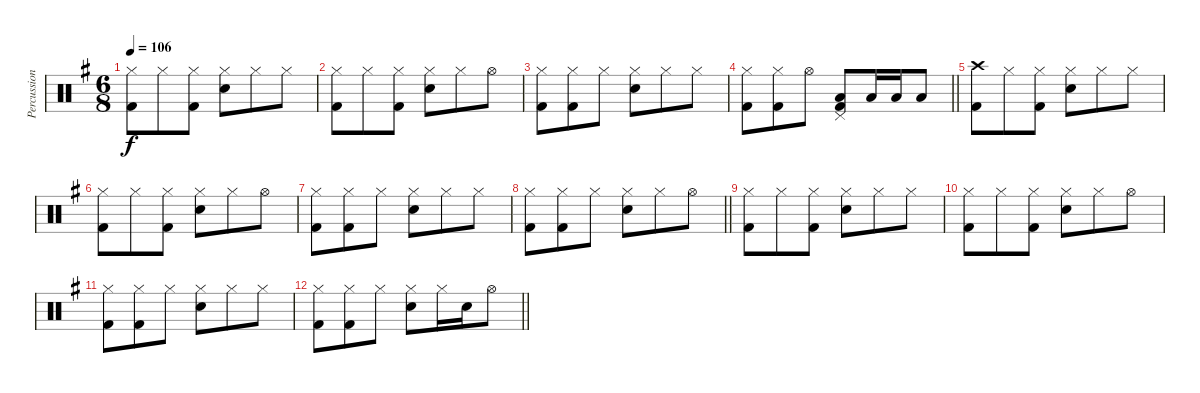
\track ("Percussion" "Percussion") {instrument percussion}
\staff {score}
\articulation defaults
\ts (6 8)
\tempo 106
\clef neutral
\ks g
("Hi-Hat (closed)" "Kick (hit) 2").8{dy f} "Hi-Hat (closed)".8 ("Hi-Hat (closed)" "Kick (hit) 2").8 ("Hi-Hat (closed)" "Snare (hit) 2").8 "Hi-Hat (closed)".8 "Hi-Hat (closed)".8 |
("Hi-Hat (closed)" "Kick (hit) 2").8 "Hi-Hat (closed)".8 ("Hi-Hat (closed)" "Kick (hit) 2").8 ("Hi-Hat (closed)" "Snare (hit) 2").8 "Hi-Hat (closed)".8 "Hi-Hat (open)".8 |
("Hi-Hat (closed)" "Kick (hit) 2").8 ("Hi-Hat (closed)" "Kick (hit) 2").8 "Hi-Hat (closed)".8 ("Hi-Hat (closed)" "Snare (hit) 2").8 "Hi-Hat (closed)".8 "Hi-Hat (closed)".8 |
\barLineRight lightlight
("Hi-Hat (closed)" "Kick (hit) 2").8 ("Hi-Hat (closed)" "Kick (hit) 2").8 "Hi-Hat (open)".8 ("Low Floor Tom (hit)" "Pedal Hi-Hat (hit)" "Kick (hit) 2").8 "Low Tom (hit)".16 "Low Tom (hit)".16 "Low Floor Tom (hit)".8 |
("Crash high (hit)" "Kick (hit) 2").8 "Hi-Hat (closed)".8 ("Hi-Hat (closed)" "Kick (hit) 2").8 ("Hi-Hat (closed)" "Snare (hit) 2").8 "Hi-Hat (closed)".8 "Hi-Hat (closed)".8 |
("Hi-Hat (closed)" "Kick (hit) 2").8 "Hi-Hat (closed)".8 ("Hi-Hat (closed)" "Kick (hit) 2").8 ("Hi-Hat (closed)" "Snare (hit) 2").8 "Hi-Hat (closed)".8 "Hi-Hat (open)".8 |
("Hi-Hat (closed)" "Kick (hit) 2").8 ("Hi-Hat (closed)" "Kick (hit) 2").8 "Hi-Hat (closed)".8 ("Hi-Hat (closed)" "Snare (hit) 2").8 "Hi-Hat (closed)".8 "Hi-Hat (closed)".8 |
\barLineRight lightlight
("Hi-Hat (closed)" "Kick (hit) 2").8 ("Hi-Hat (closed)" "Kick (hit) 2").8 "Hi-Hat (closed)".8 ("Hi-Hat (closed)" "Snare (hit) 2").8 "Hi-Hat (closed)".8 "Hi-Hat (open)".8 |
("Hi-Hat (closed)" "Kick (hit) 2").8 "Hi-Hat (closed)".8 ("Hi-Hat (closed)" "Kick (hit) 2").8 ("Hi-Hat (closed)" "Snare (hit) 2").8 "Hi-Hat (closed)".8 "Hi-Hat (closed)".8 |
("Hi-Hat (closed)" "Kick (hit) 2").8 "Hi-Hat (closed)".8 ("Hi-Hat (closed)" "Kick (hit) 2").8 ("Hi-Hat (closed)" "Snare (hit) 2").8 "Hi-Hat (closed)".8 "Hi-Hat (open)".8 |
("Hi-Hat (closed)" "Kick (hit) 2").8 ("Hi-Hat (closed)" "Kick (hit) 2").8 "Hi-Hat (closed)".8 ("Hi-Hat (closed)" "Snare (hit) 2").8 "Hi-Hat (closed)".8 "Hi-Hat (closed)".8 |
\barLineRight lightlight
("Hi-Hat (closed)" "Kick (hit) 2").8 ("Hi-Hat (closed)" "Kick (hit) 2").8 "Hi-Hat (closed)".8 ("Hi-Hat (closed)" "Snare (hit) 2").8 "Hi-Hat (closed)".16 "Snare (hit) 2".16 "Hi-Hat (open)".8
